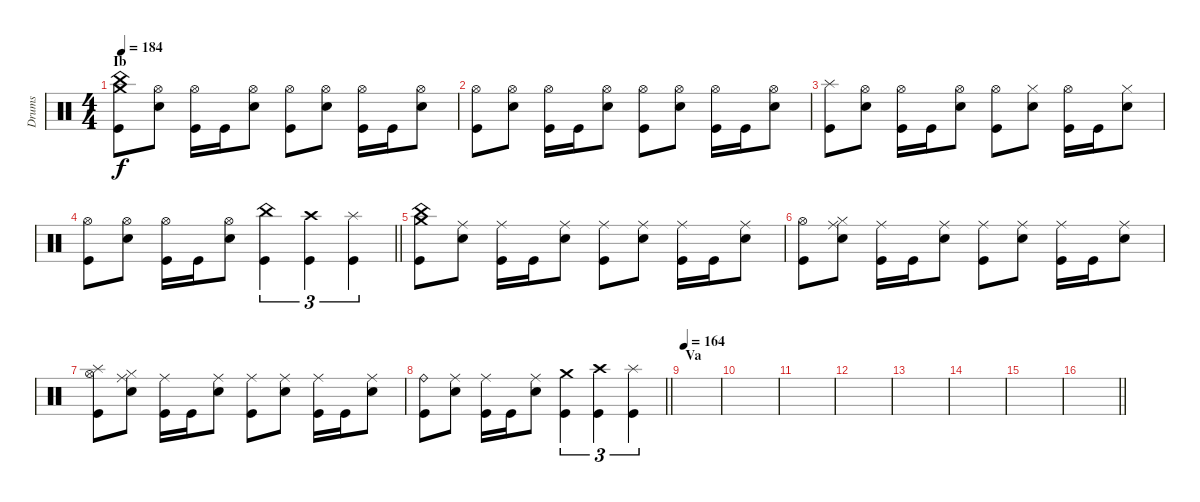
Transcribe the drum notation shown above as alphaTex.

\track ("Drums" "Drums") {instrument percussion}
\staff {score}
\articulation defaults
\ts (4 4)
\section ("" "Ib")
\tempo 184
\clef neutral
\ks c
("China (hit)" "Crash medium (hit)" "Kick (hit)").8{dy f} ("Hi-Hat (open)" "Electric Snare (hit)").8 ("Hi-Hat (open)" "Kick (hit)").16 "Kick (hit)".16 ("Hi-Hat (open)" "Electric Snare (hit)").8 ("Hi-Hat (open)" "Kick (hit)").8 ("Hi-Hat (open)" "Electric Snare (hit)").8 ("Hi-Hat (open)" "Kick (hit)").16 "Kick (hit)".16 ("Hi-Hat (open)" "Electric Snare (hit)").8 |
("Hi-Hat (open)" "Kick (hit)").8 ("Hi-Hat (open)" "Electric Snare (hit)").8 ("Hi-Hat (open)" "Kick (hit)").16 "Kick (hit)".16 ("Hi-Hat (open)" "Electric Snare (hit)").8 ("Hi-Hat (open)" "Kick (hit)").8 ("Hi-Hat (open)" "Electric Snare (hit)").8 ("Hi-Hat (open)" "Kick (hit)").16 "Kick (hit)".16 ("Hi-Hat (open)" "Electric Snare (hit)").8 |
("Splash (hit)" "Kick (hit)").8 ("Hi-Hat (open)" "Electric Snare (hit)").8 ("Hi-Hat (open)" "Kick (hit)").16 "Kick (hit)".16 ("Hi-Hat (open)" "Electric Snare (hit)").8 ("Hi-Hat (open)" "Kick (hit)").8 ("Hi-Hat (closed)" "Electric Snare (hit)").8 ("Hi-Hat (open)" "Kick (hit)").16 "Kick (hit)".16 ("Hi-Hat (closed)" "Electric Snare (hit)").8 |
\barLineRight lightlight
("Hi-Hat (open)" "Kick (hit)").8 ("Hi-Hat (open)" "Electric Snare (hit)").8 ("Hi-Hat (open)" "Kick (hit)").16 "Kick (hit)".16 ("Hi-Hat (open)" "Electric Snare (hit)").8 ("China (hit)" "Kick (hit)").4{tu (3 2)} ("Crash high (hit)" "Kick (hit)").4{tu (3 2)} ("Splash (hit)" "Kick (hit)").4{tu (3 2)} |
("China (hit)" "Crash medium (hit)" "Kick (hit)").8 ("Ride (middle)" "Electric Snare (hit)").8 ("Ride (middle)" "Kick (hit)").16 "Kick (hit)".16 ("Ride (middle)" "Electric Snare (hit)").8 ("Ride (middle)" "Kick (hit)").8 ("Ride (middle)" "Electric Snare (hit)").8 ("Ride (middle)" "Kick (hit)").16 "Kick (hit)".16 ("Ride (middle)" "Electric Snare (hit)").8 |
("Hi-Hat (open)" "Kick (hit)").8 ("Ride (middle)" "Hi-Hat (closed)" "Electric Snare (hit)").8 ("Ride (middle)" "Kick (hit)").16 "Kick (hit)".16 ("Ride (middle)" "Electric Snare (hit)").8 ("Ride (middle)" "Kick (hit)").8 ("Ride (middle)" "Electric Snare (hit)").8 ("Ride (middle)" "Kick (hit)").16 "Kick (hit)".16 ("Ride (middle)" "Electric Snare (hit)").8 |
("Splash (hit)" "Hi-Hat (open)" "Kick (hit)").8 ("Ride (middle)" "Hi-Hat (closed)" "Electric Snare (hit)").8 ("Ride (middle)" "Kick (hit)").16 "Kick (hit)".16 ("Ride (middle)" "Electric Snare (hit)").8 ("Ride (middle)" "Kick (hit)").8 ("Ride (middle)" "Electric Snare (hit)").8 ("Ride (middle)" "Kick (hit)").16 "Kick (hit)".16 ("Ride (middle)" "Electric Snare (hit)").8 |
\barLineRight lightlight
("Ride (bell)" "Kick (hit)").8 ("Ride (middle)" "Electric Snare (hit)").8 ("Ride (middle)" "Kick (hit)").16 "Kick (hit)".16 ("Ride (middle)" "Electric Snare (hit)").8 ("Crash medium (hit)" "Kick (hit)").4{tu (3 2)} ("Crash high (hit)" "Kick (hit)").4{tu (3 2)} ("Splash (hit)" "Kick (hit)").4{tu (3 2)} |
\section ("" "Va")
\tempo 164
|
|
|
|
|
|
|
\barLineRight lightlight
